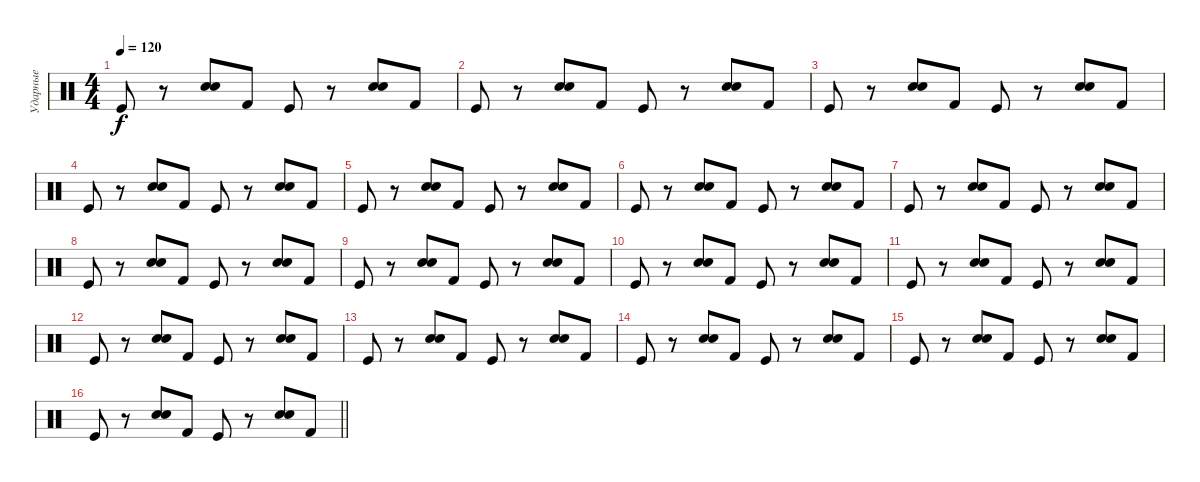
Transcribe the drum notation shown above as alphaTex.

\track ("Ударные" "Ударные") {instrument percussion}
\staff {score}
\articulation defaults
\ts (4 4)
\tempo 120
\clef neutral
\ks c "Kick (hit)".8{dy f}
r.8 ("Electric Snare (hit)" "Snare (hit) 2").8 "Kick (hit) 2".8 "Kick (hit)".8 r.8 ("Electric Snare (hit)" "Snare (hit) 2").8 "Kick (hit) 2".8 |
"Kick (hit)".8 r.8 ("Electric Snare (hit)" "Snare (hit) 2").8 "Kick (hit) 2".8 "Kick (hit)".8 r.8 ("Electric Snare (hit)" "Snare (hit) 2").8 "Kick (hit) 2".8 |
"Kick (hit)".8 r.8 ("Electric Snare (hit)" "Snare (hit) 2").8 "Kick (hit) 2".8 "Kick (hit)".8 r.8 ("Electric Snare (hit)" "Snare (hit) 2").8 "Kick (hit) 2".8 |
"Kick (hit)".8 r.8 ("Electric Snare (hit)" "Snare (hit) 2").8 "Kick (hit) 2".8 "Kick (hit)".8 r.8 ("Electric Snare (hit)" "Snare (hit) 2").8 "Kick (hit) 2".8 |
"Kick (hit)".8 r.8 ("Electric Snare (hit)" "Snare (hit) 2").8 "Kick (hit) 2".8 "Kick (hit)".8 r.8 ("Electric Snare (hit)" "Snare (hit) 2").8 "Kick (hit) 2".8 |
"Kick (hit)".8 r.8 ("Electric Snare (hit)" "Snare (hit) 2").8 "Kick (hit) 2".8 "Kick (hit)".8 r.8 ("Electric Snare (hit)" "Snare (hit) 2").8 "Kick (hit) 2".8 |
"Kick (hit)".8 r.8 ("Electric Snare (hit)" "Snare (hit) 2").8 "Kick (hit) 2".8 "Kick (hit)".8 r.8 ("Electric Snare (hit)" "Snare (hit) 2").8 "Kick (hit) 2".8 |
"Kick (hit)".8 r.8 ("Electric Snare (hit)" "Snare (hit) 2").8 "Kick (hit) 2".8 "Kick (hit)".8 r.8 ("Electric Snare (hit)" "Snare (hit) 2").8 "Kick (hit) 2".8 |
"Kick (hit)".8 r.8 ("Electric Snare (hit)" "Snare (hit) 2").8 "Kick (hit) 2".8 "Kick (hit)".8 r.8 ("Electric Snare (hit)" "Snare (hit) 2").8 "Kick (hit) 2".8 |
"Kick (hit)".8 r.8 ("Electric Snare (hit)" "Snare (hit) 2").8 "Kick (hit) 2".8 "Kick (hit)".8 r.8 ("Electric Snare (hit)" "Snare (hit) 2").8 "Kick (hit) 2".8 |
"Kick (hit)".8 r.8 ("Electric Snare (hit)" "Snare (hit) 2").8 "Kick (hit) 2".8 "Kick (hit)".8 r.8 ("Electric Snare (hit)" "Snare (hit) 2").8 "Kick (hit) 2".8 |
"Kick (hit)".8 r.8 ("Electric Snare (hit)" "Snare (hit) 2").8 "Kick (hit) 2".8 "Kick (hit)".8 r.8 ("Electric Snare (hit)" "Snare (hit) 2").8 "Kick (hit) 2".8 |
"Kick (hit)".8 r.8 ("Electric Snare (hit)" "Snare (hit) 2").8 "Kick (hit) 2".8 "Kick (hit)".8 r.8 ("Electric Snare (hit)" "Snare (hit) 2").8 "Kick (hit) 2".8 |
"Kick (hit)".8 r.8 ("Electric Snare (hit)" "Snare (hit) 2").8 "Kick (hit) 2".8 "Kick (hit)".8 r.8 ("Electric Snare (hit)" "Snare (hit) 2").8 "Kick (hit) 2".8 |
"Kick (hit)".8 r.8 ("Electric Snare (hit)" "Snare (hit) 2").8 "Kick (hit) 2".8 "Kick (hit)".8 r.8 ("Electric Snare (hit)" "Snare (hit) 2").8 "Kick (hit) 2".8 |
\barLineRight lightlight "Kick (hit)".8
r.8 ("Electric Snare (hit)" "Snare (hit) 2").8 "Kick (hit) 2".8 "Kick (hit)".8 r.8 ("Electric Snare (hit)" "Snare (hit) 2").8 "Kick (hit) 2".8
